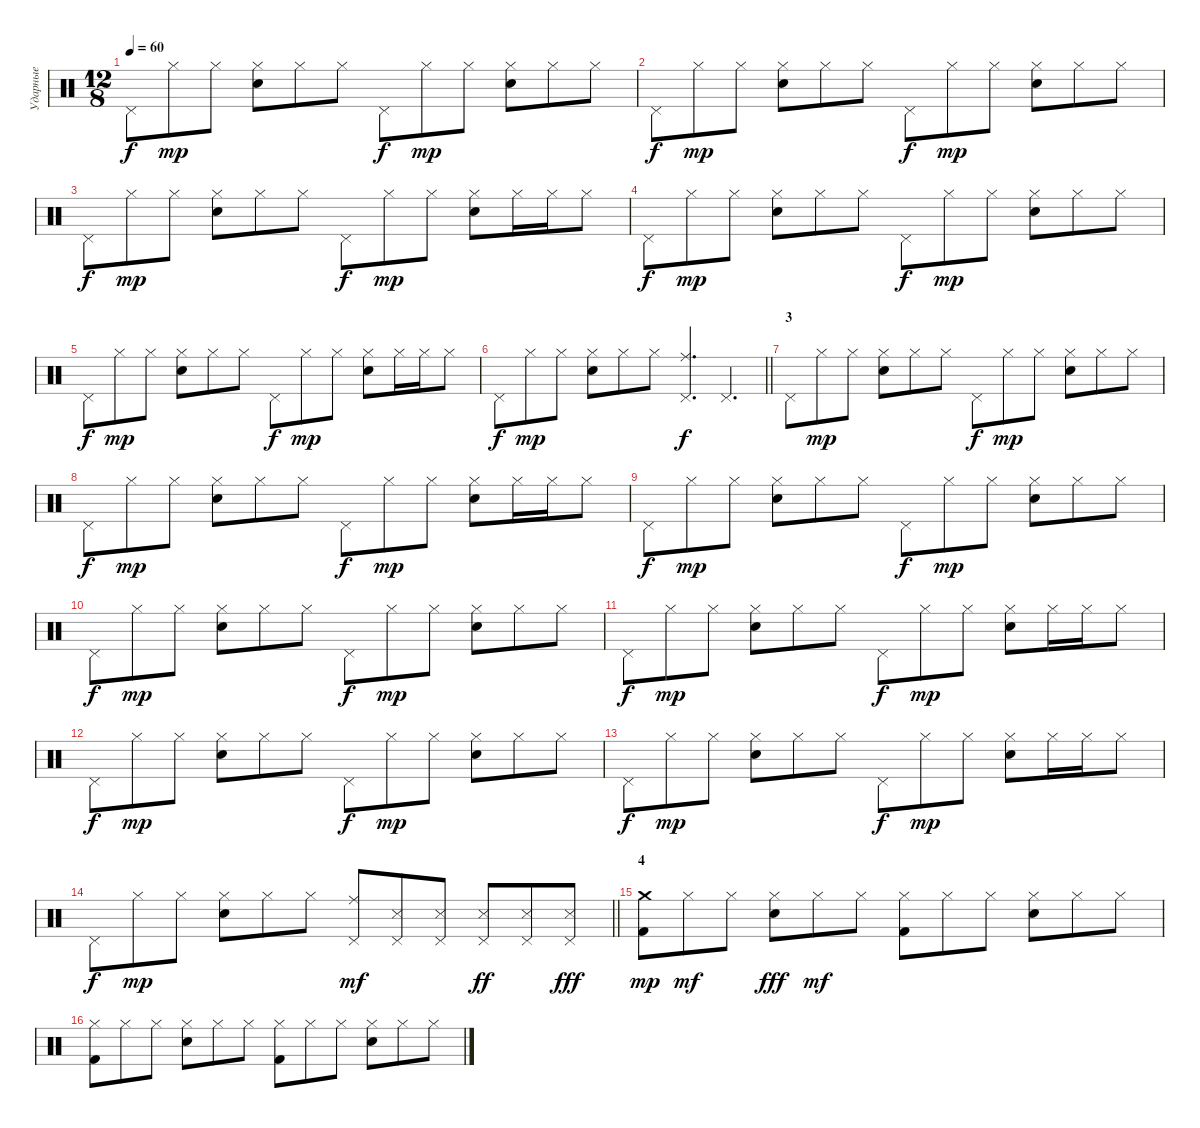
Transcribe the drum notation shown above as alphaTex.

\track ("Ударные" "Ударные") {instrument percussion}
\staff {score}
\articulation defaults
\ts (12 8)
\tempo 60
\clef neutral
\ks c "Pedal Hi-Hat (hit)".8{dy f} "Hi-Hat (closed)".8{dy mp} "Hi-Hat (closed)".8
("Hi-Hat (closed)" "Electric Snare (hit)").8 "Hi-Hat (closed)".8 "Hi-Hat (closed)".8 "Pedal Hi-Hat (hit)".8{dy f} "Hi-Hat (closed)".8{dy mp} "Hi-Hat (closed)".8 ("Hi-Hat (closed)" "Electric Snare (hit)").8 "Hi-Hat (closed)".8 "Hi-Hat (closed)".8 |
"Pedal Hi-Hat (hit)".8{dy f} "Hi-Hat (closed)".8{dy mp} "Hi-Hat (closed)".8 ("Hi-Hat (closed)" "Electric Snare (hit)").8 "Hi-Hat (closed)".8 "Hi-Hat (closed)".8 "Pedal Hi-Hat (hit)".8{dy f} "Hi-Hat (closed)".8{dy mp} "Hi-Hat (closed)".8 ("Hi-Hat (closed)" "Electric Snare (hit)").8 "Hi-Hat (closed)".8 "Hi-Hat (closed)".8 |
"Pedal Hi-Hat (hit)".8{dy f} "Hi-Hat (closed)".8{dy mp} "Hi-Hat (closed)".8 ("Hi-Hat (closed)" "Electric Snare (hit)").8 "Hi-Hat (closed)".8 "Hi-Hat (closed)".8 "Pedal Hi-Hat (hit)".8{dy f} "Hi-Hat (closed)".8{dy mp} "Hi-Hat (closed)".8 ("Hi-Hat (closed)" "Electric Snare (hit)").8 "Hi-Hat (closed)".16 "Hi-Hat (closed)".16 "Hi-Hat (closed)".8 |
"Pedal Hi-Hat (hit)".8{dy f} "Hi-Hat (closed)".8{dy mp} "Hi-Hat (closed)".8 ("Hi-Hat (closed)" "Electric Snare (hit)").8 "Hi-Hat (closed)".8 "Hi-Hat (closed)".8 "Pedal Hi-Hat (hit)".8{dy f} "Hi-Hat (closed)".8{dy mp} "Hi-Hat (closed)".8 ("Hi-Hat (closed)" "Electric Snare (hit)").8 "Hi-Hat (closed)".8 "Hi-Hat (closed)".8 |
"Pedal Hi-Hat (hit)".8{dy f} "Hi-Hat (closed)".8{dy mp} "Hi-Hat (closed)".8 ("Hi-Hat (closed)" "Electric Snare (hit)").8 "Hi-Hat (closed)".8 "Hi-Hat (closed)".8 "Pedal Hi-Hat (hit)".8{dy f} "Hi-Hat (closed)".8{dy mp} "Hi-Hat (closed)".8 ("Hi-Hat (closed)" "Electric Snare (hit)").8 "Hi-Hat (closed)".16 "Hi-Hat (closed)".16 "Hi-Hat (closed)".8 |
\barLineRight lightlight "Pedal Hi-Hat (hit)".8{dy f} "Hi-Hat (closed)".8{dy mp} "Hi-Hat (closed)".8
("Hi-Hat (closed)" "Electric Snare (hit)").8 "Hi-Hat (closed)".8 "Hi-Hat (closed)".8 ("Pedal Hi-Hat (hit)" "Ride (middle)").4{d dy f} "Pedal Hi-Hat (hit)".4{d} |
\section ("" "3")
"Pedal Hi-Hat (hit)".8 "Hi-Hat (closed)".8{dy mp} "Hi-Hat (closed)".8 ("Hi-Hat (closed)" "Electric Snare (hit)").8 "Hi-Hat (closed)".8 "Hi-Hat (closed)".8 "Pedal Hi-Hat (hit)".8{dy f} "Hi-Hat (closed)".8{dy mp} "Hi-Hat (closed)".8 ("Hi-Hat (closed)" "Electric Snare (hit)").8 "Hi-Hat (closed)".8 "Hi-Hat (closed)".8 |
"Pedal Hi-Hat (hit)".8{dy f} "Hi-Hat (closed)".8{dy mp} "Hi-Hat (closed)".8 ("Hi-Hat (closed)" "Electric Snare (hit)").8 "Hi-Hat (closed)".8 "Hi-Hat (closed)".8 "Pedal Hi-Hat (hit)".8{dy f} "Hi-Hat (closed)".8{dy mp} "Hi-Hat (closed)".8 ("Hi-Hat (closed)" "Electric Snare (hit)").8 "Hi-Hat (closed)".16 "Hi-Hat (closed)".16 "Hi-Hat (closed)".8 |
"Pedal Hi-Hat (hit)".8{dy f} "Hi-Hat (closed)".8{dy mp} "Hi-Hat (closed)".8 ("Hi-Hat (closed)" "Electric Snare (hit)").8 "Hi-Hat (closed)".8 "Hi-Hat (closed)".8 "Pedal Hi-Hat (hit)".8{dy f} "Hi-Hat (closed)".8{dy mp} "Hi-Hat (closed)".8 ("Hi-Hat (closed)" "Electric Snare (hit)").8 "Hi-Hat (closed)".8 "Hi-Hat (closed)".8 |
"Pedal Hi-Hat (hit)".8{dy f} "Hi-Hat (closed)".8{dy mp} "Hi-Hat (closed)".8 ("Hi-Hat (closed)" "Electric Snare (hit)").8 "Hi-Hat (closed)".8 "Hi-Hat (closed)".8 "Pedal Hi-Hat (hit)".8{dy f} "Hi-Hat (closed)".8{dy mp} "Hi-Hat (closed)".8 ("Hi-Hat (closed)" "Electric Snare (hit)").8 "Hi-Hat (closed)".8 "Hi-Hat (closed)".8 |
"Pedal Hi-Hat (hit)".8{dy f} "Hi-Hat (closed)".8{dy mp} "Hi-Hat (closed)".8 ("Hi-Hat (closed)" "Electric Snare (hit)").8 "Hi-Hat (closed)".8 "Hi-Hat (closed)".8 "Pedal Hi-Hat (hit)".8{dy f} "Hi-Hat (closed)".8{dy mp} "Hi-Hat (closed)".8 ("Hi-Hat (closed)" "Electric Snare (hit)").8 "Hi-Hat (closed)".16 "Hi-Hat (closed)".16 "Hi-Hat (closed)".8 |
"Pedal Hi-Hat (hit)".8{dy f} "Hi-Hat (closed)".8{dy mp} "Hi-Hat (closed)".8 ("Hi-Hat (closed)" "Electric Snare (hit)").8 "Hi-Hat (closed)".8 "Hi-Hat (closed)".8 "Pedal Hi-Hat (hit)".8{dy f} "Hi-Hat (closed)".8{dy mp} "Hi-Hat (closed)".8 ("Hi-Hat (closed)" "Electric Snare (hit)").8 "Hi-Hat (closed)".8 "Hi-Hat (closed)".8 |
"Pedal Hi-Hat (hit)".8{dy f} "Hi-Hat (closed)".8{dy mp} "Hi-Hat (closed)".8 ("Hi-Hat (closed)" "Electric Snare (hit)").8 "Hi-Hat (closed)".8 "Hi-Hat (closed)".8 "Pedal Hi-Hat (hit)".8{dy f} "Hi-Hat (closed)".8{dy mp} "Hi-Hat (closed)".8 ("Hi-Hat (closed)" "Electric Snare (hit)").8 "Hi-Hat (closed)".16 "Hi-Hat (closed)".16 "Hi-Hat (closed)".8 |
\barLineRight lightlight "Pedal Hi-Hat (hit)".8{dy f} "Hi-Hat (closed)".8{dy mp} "Hi-Hat (closed)".8
("Hi-Hat (closed)" "Electric Snare (hit)").8 "Hi-Hat (closed)".8 "Hi-Hat (closed)".8 ("Pedal Hi-Hat (hit)" "Ride (middle)").8{dy mf} ("Pedal Hi-Hat (hit)" "Snare (side stick) 3").8 ("Pedal Hi-Hat (hit)" "Snare (side stick) 3").8 ("Pedal Hi-Hat (hit)" "Snare (side stick) 3").8{dy ff} ("Pedal Hi-Hat (hit)" "Snare (side stick) 3").8 ("Pedal Hi-Hat (hit)" "Snare (side stick) 3").8{dy fff} |
\section ("" "4")
("Kick (hit) 2" "Crash medium (hit)").8{dy mp volume 12} "Hi-Hat (closed)".8{dy mf} "Hi-Hat (closed)".8 ("Hi-Hat (closed)" "Snare (hit) 2").8{dy fff} "Hi-Hat (closed)".8{dy mf} "Hi-Hat (closed)".8 ("Hi-Hat (closed)" "Kick (hit) 2").8 "Hi-Hat (closed)".8 "Hi-Hat (closed)".8 ("Hi-Hat (closed)" "Snare (hit) 2").8 "Hi-Hat (closed)".8 "Hi-Hat (closed)".8 |
("Kick (hit) 2" "Hi-Hat (closed)").8 "Hi-Hat (closed)".8 "Hi-Hat (closed)".8 ("Hi-Hat (closed)" "Snare (hit) 2").8 "Hi-Hat (closed)".8 "Hi-Hat (closed)".8 ("Hi-Hat (closed)" "Kick (hit) 2").8 "Hi-Hat (closed)".8 "Hi-Hat (closed)".8 ("Hi-Hat (closed)" "Snare (hit) 2").8 "Hi-Hat (closed)".8 "Hi-Hat (closed)".8
